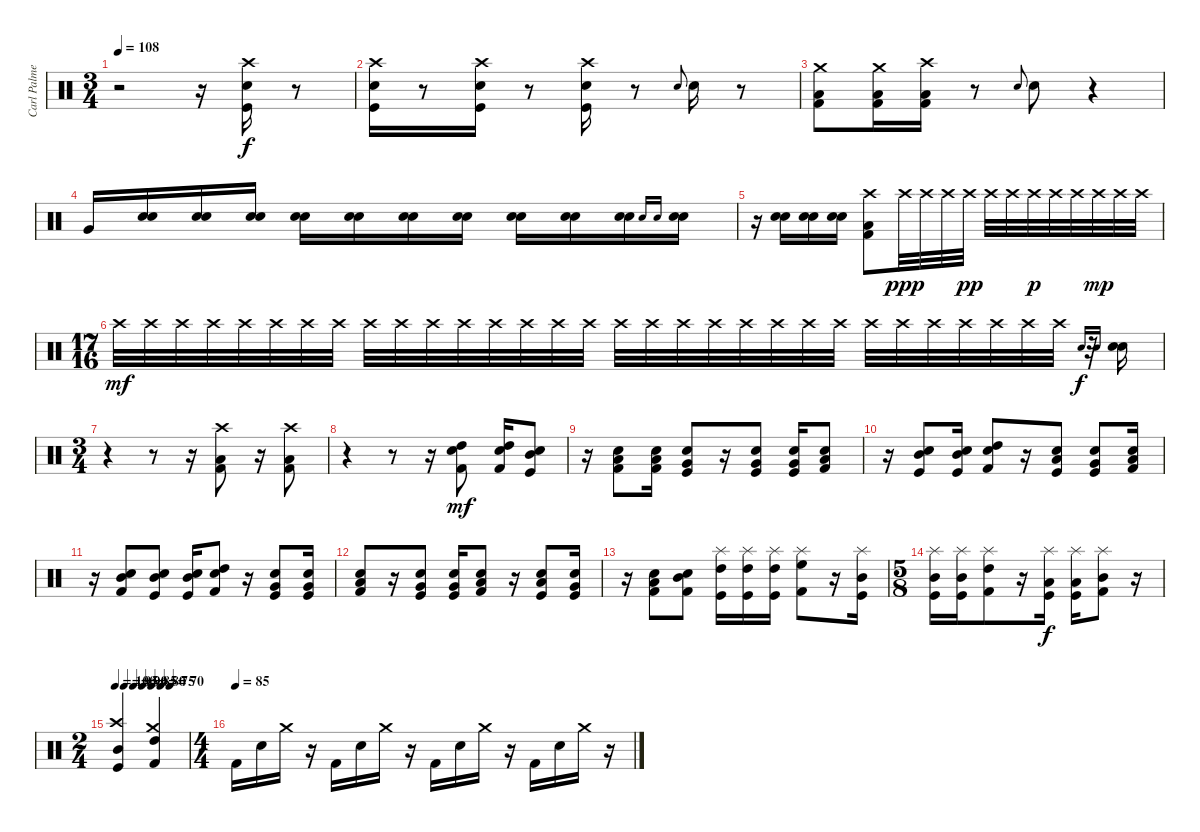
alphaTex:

\track ("Carl Palmer (Percussion)" "Carl Palme") {instrument percussion}
\staff {score}
\articulation defaults
\ts (3 4)
\tempo 108
\clef neutral
\ks c
r.2{dy f} r.16 ("Kick (hit)" "Snare (hit) 2" "Crash high (hit)").16 r.8 |
("Kick (hit)" "Snare (hit) 2" "Crash high (hit)").16 r.8 ("Kick (hit)" "Snare (hit) 2" "Crash high (hit)").16 r.8 ("Kick (hit)" "Snare (hit) 2" "Crash high (hit)").16 r.8 "Electric Snare (hit)".8{gr onbeat} "Electric Snare (hit)".16 r.8 |
("Kick (hit) 2" "Low Tom (hit)" "Crash medium (hit)").8 ("Kick (hit) 2" "Low Tom (hit)" "Crash medium (hit)").16 ("Kick (hit) 2" "Low Tom (hit)" "Crash high (hit)").16 r.8 "Electric Snare (hit)".8{gr onbeat} "Electric Snare (hit)".8 r.4 |
"Very Low Tom (hit)".16 ("Snare (hit) 2" "Electric Snare (hit)").16 ("Snare (hit) 2" "Electric Snare (hit)").16 ("Snare (hit) 2" "Electric Snare (hit)").16 ("Snare (hit) 2" "Electric Snare (hit)").16 ("Snare (hit) 2" "Electric Snare (hit)").16 ("Snare (hit) 2" "Electric Snare (hit)").16 ("Snare (hit) 2" "Electric Snare (hit)").16 ("Snare (hit) 2" "Electric Snare (hit)").16 ("Snare (hit) 2" "Electric Snare (hit)").16 ("Snare (hit) 2" "Electric Snare (hit)").16 "Snare (hit) 2".16{gr onbeat} "Electric Snare (hit)".16{gr onbeat} ("Snare (hit) 2" "Electric Snare (hit)").16 |
r.16 ("Snare (hit) 2" "Electric Snare (hit)").16 ("Snare (hit) 2" "Electric Snare (hit)").16 ("Snare (hit) 2" "Electric Snare (hit)").16 ("Kick (hit) 2" "Low Tom (hit)" "Crash high (hit)").8 "Crash high (hit)".32{dy ppp} "Crash high (hit)".32 "Crash high (hit)".32 "Crash high (hit)".32{dy pp} "Crash high (hit)".32 "Crash high (hit)".32 "Crash high (hit)".32{dy p} "Crash high (hit)".32 "Crash high (hit)".32 "Crash high (hit)".32{dy mp} "Crash high (hit)".32 "Crash high (hit)".32 |
\ts (17 16)
"Crash high (hit)".32{dy mf} "Crash high (hit)".32 "Crash high (hit)".32 "Crash high (hit)".32 "Crash high (hit)".32 "Crash high (hit)".32 "Crash high (hit)".32 "Crash high (hit)".32 "Crash high (hit)".32 "Crash high (hit)".32 "Crash high (hit)".32 "Crash high (hit)".32 "Crash high (hit)".32 "Crash high (hit)".32 "Crash high (hit)".32 "Crash high (hit)".32 "Crash high (hit)".32 "Crash high (hit)".32 "Crash high (hit)".32 "Crash high (hit)".32 "Crash high (hit)".32 "Crash high (hit)".32 "Crash high (hit)".32 "Crash high (hit)".32 "Crash high (hit)".32 "Crash high (hit)".32 "Crash high (hit)".32 "Crash high (hit)".32 "Crash high (hit)".32 "Crash high (hit)".32 "Crash high (hit)".32 r.32 "Snare (hit) 2".16{gr onbeat dy f} "Electric Snare (hit)".16{gr onbeat} ("Snare (hit) 2" "Electric Snare (hit)").16 |
\ts (3 4)
r.4 r.8 r.16 ("Kick (hit) 2" "Low Tom (hit)" "Crash high (hit)").8 r.16 ("Kick (hit) 2" "Low Tom (hit)" "Crash high (hit)").8 |
r.4 r.8 r.16 ("High Tom (hit)" "Kick (hit) 2" "Snare (hit) 2").8{dy mf} ("High Tom (hit)" "Kick (hit) 2" "Snare (hit) 2").16 ("Mid Tom (hit)" "Kick (hit)" "Snare (hit) 2").8 |
r.16 ("Low Tom (hit)" "Kick (hit) 2" "Snare (hit) 2").8 ("Low Tom (hit)" "Kick (hit) 2" "Snare (hit) 2").16 ("Very Low Tom (hit)" "Kick (hit)" "Snare (hit) 2").8 r.16 ("Very Low Tom (hit)" "Kick (hit)" "Snare (hit) 2").8 ("Very Low Tom (hit)" "Kick (hit)" "Snare (hit) 2").16 ("Low Tom (hit)" "Kick (hit) 2" "Snare (hit) 2").8 |
r.16 ("Mid Tom (hit)" "Kick (hit)" "Snare (hit) 2").8 ("Mid Tom (hit)" "Kick (hit)" "Snare (hit) 2").16 ("High Tom (hit)" "Kick (hit) 2" "Snare (hit) 2").8 r.16 ("Low Floor Tom (hit)" "Kick (hit)" "Snare (hit) 2").8 ("Very Low Tom (hit)" "Kick (hit)" "Snare (hit) 2").8 ("Low Tom (hit)" "Kick (hit) 2" "Snare (hit) 2").16 |
r.16 ("Mid Tom (hit)" "Kick (hit) 2" "Snare (hit) 2").8 ("Mid Tom (hit)" "Kick (hit)" "Snare (hit) 2").8 ("Mid Tom (hit)" "Kick (hit)" "Snare (hit) 2").16 ("High Tom (hit)" "Kick (hit) 2" "Snare (hit) 2").8 r.16 ("Very Low Tom (hit)" "Kick (hit)" "Snare (hit) 2").8 ("Very Low Tom (hit)" "Kick (hit)" "Snare (hit) 2").16 |
("Low Tom (hit)" "Kick (hit) 2" "Snare (hit) 2").8 r.16 ("Very Low Tom (hit)" "Kick (hit)" "Snare (hit) 2").8 ("Very Low Tom (hit)" "Kick (hit)" "Snare (hit) 2").16 ("Low Tom (hit)" "Kick (hit) 2" "Snare (hit) 2").8 r.16 ("Low Floor Tom (hit)" "Kick (hit)" "Snare (hit) 2").8 ("Very Low Tom (hit)" "Kick (hit)" "Snare (hit) 2").16 |
r.16 ("Low Tom (hit)" "Kick (hit) 2" "Snare (hit) 2").8 ("Mid Tom (hit)" "Kick (hit) 2" "Snare (hit) 2").8 ("High Tom (hit)" "Kick (hit)" "Splash (hit)").16 ("High Tom (hit)" "Kick (hit)" "Splash (hit)").16 ("High Tom (hit)" "Kick (hit)" "Splash (hit)").16 ("High Floor Tom (hit)" "Kick (hit) 2" "Splash (hit)").8 r.16 ("Mid Tom (hit)" "Kick (hit)" "Splash (hit)").16 |
\ts (5 8)
("Mid Tom (hit)" "Kick (hit)" "Splash (hit)").16 ("Mid Tom (hit)" "Kick (hit)" "Splash (hit)").16 ("High Tom (hit)" "Kick (hit) 2" "Splash (hit)").8 r.16 ("Low Tom (hit)" "Kick (hit)" "Splash (hit)").16{dy f} ("Low Tom (hit)" "Kick (hit)" "Splash (hit)").16 ("Mid Tom (hit)" "Kick (hit) 2" "Splash (hit)").8 r.16 |
\ts (2 4)
\tempo 100
\tempo (95 0.125)
\tempo (90 0.25)
\tempo (85 0.375)
\tempo (80 0.5)
\tempo (75 0.625)
\tempo (70 0.75)
("Mid Tom (hit)" "Kick (hit)" "Crash high (hit)").4 ("High Tom (hit)" "Kick (hit) 2" "Crash medium (hit)").4 |
\ts (4 4)
\tempo (85)
"Kick (hit) 2".16 "Electric Snare (hit)".16 "Crash medium (hit)".16 r.16 "Kick (hit) 2".16 "Electric Snare (hit)".16 "Crash medium (hit)".16 r.16 "Kick (hit) 2".16 "Electric Snare (hit)".16 "Crash medium (hit)".16 r.16 "Kick (hit) 2".16 "Electric Snare (hit)".16 "Crash medium (hit)".16 r.16
